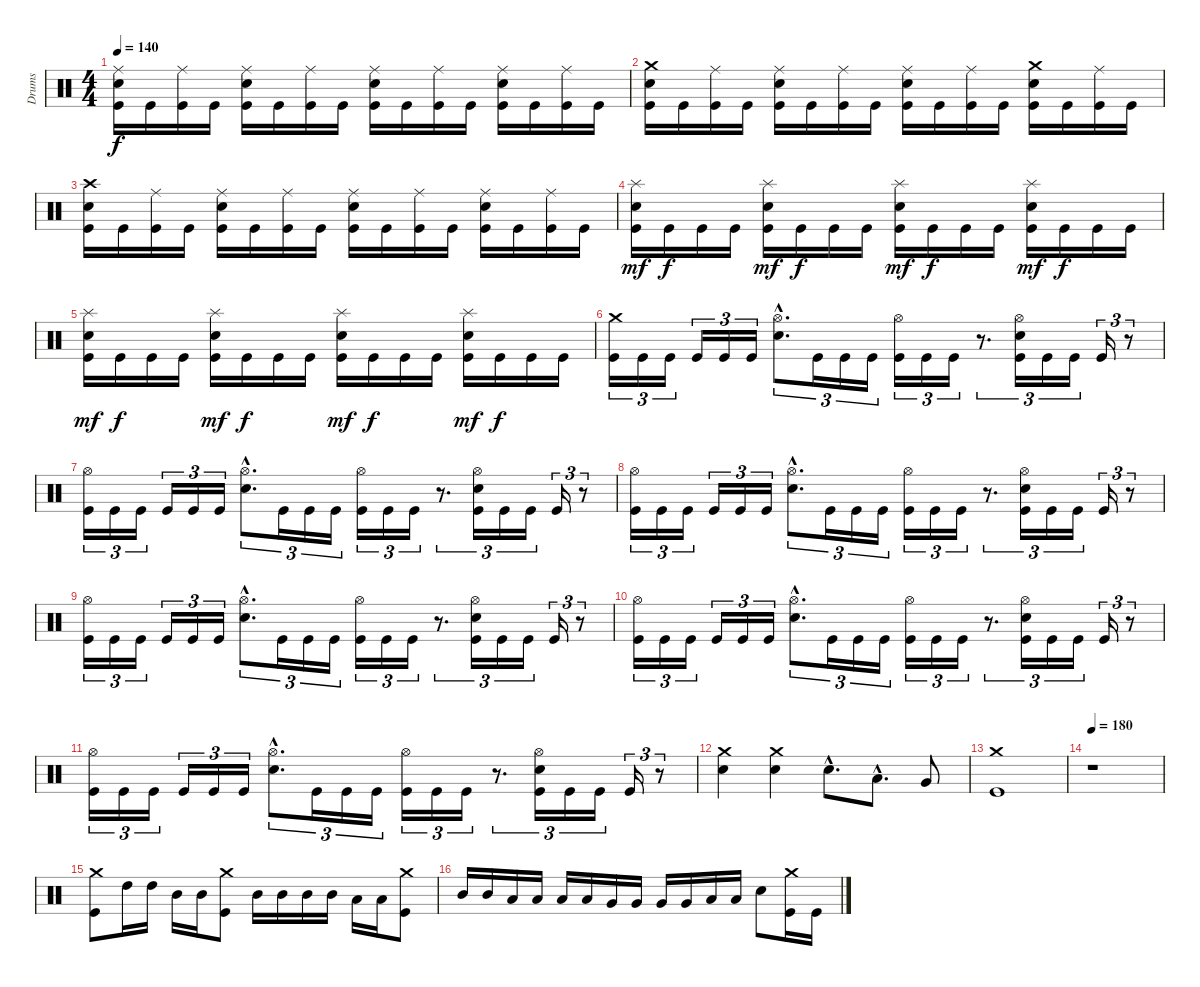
\track ("Drums" "Drums") {instrument percussion}
\staff {score}
\articulation defaults
\ts (4 4)
\tempo 140
\clef neutral
\ks c
("Kick (hit)" "Electric Snare (hit)" "Ride (middle)").16{dy f} "Kick (hit)".16 ("Kick (hit)" "Ride (middle)").16 "Kick (hit)".16 ("Kick (hit)" "Electric Snare (hit)" "Ride (middle)").16 "Kick (hit)".16 ("Kick (hit)" "Ride (middle)").16 "Kick (hit)".16 ("Kick (hit)" "Electric Snare (hit)" "Ride (middle)").16 "Kick (hit)".16 ("Kick (hit)" "Ride (middle)").16 "Kick (hit)".16 ("Kick (hit)" "Electric Snare (hit)" "Ride (middle)").16 "Kick (hit)".16 ("Kick (hit)" "Ride (middle)").16 "Kick (hit)".16 |
("Kick (hit)" "Electric Snare (hit)" "Crash medium (hit)").16 "Kick (hit)".16 ("Kick (hit)" "Ride (middle)").16 "Kick (hit)".16 ("Kick (hit)" "Electric Snare (hit)" "Ride (middle)").16 "Kick (hit)".16 ("Kick (hit)" "Ride (middle)").16 "Kick (hit)".16 ("Kick (hit)" "Electric Snare (hit)" "Ride (middle)").16 "Kick (hit)".16 ("Kick (hit)" "Ride (middle)").16 "Kick (hit)".16 ("Kick (hit)" "Electric Snare (hit)" "Crash medium (hit)").16 "Kick (hit)".16 ("Kick (hit)" "Ride (middle)").16 "Kick (hit)".16 |
("Kick (hit)" "Electric Snare (hit)" "Crash high (hit)").16 "Kick (hit)".16 ("Kick (hit)" "Ride (middle)").16 "Kick (hit)".16 ("Kick (hit)" "Electric Snare (hit)" "Ride (middle)").16 "Kick (hit)".16 ("Kick (hit)" "Ride (middle)").16 "Kick (hit)".16 ("Kick (hit)" "Electric Snare (hit)" "Ride (middle)").16 "Kick (hit)".16 ("Kick (hit)" "Ride (middle)").16 "Kick (hit)".16 ("Kick (hit)" "Electric Snare (hit)" "Ride (middle)").16 "Kick (hit)".16 ("Kick (hit)" "Ride (middle)").16 "Kick (hit)".16 |
("Kick (hit)" "Electric Snare (hit)" "Splash (hit)").16{dy mf} "Kick (hit)".16{dy f} "Kick (hit)".16 "Kick (hit)".16 ("Kick (hit)" "Electric Snare (hit)" "Splash (hit)").16{dy mf} "Kick (hit)".16{dy f} "Kick (hit)".16 "Kick (hit)".16 ("Kick (hit)" "Electric Snare (hit)" "Splash (hit)").16{dy mf} "Kick (hit)".16{dy f} "Kick (hit)".16 "Kick (hit)".16 ("Kick (hit)" "Electric Snare (hit)" "Splash (hit)").16{dy mf} "Kick (hit)".16{dy f} "Kick (hit)".16 "Kick (hit)".16 |
("Kick (hit)" "Electric Snare (hit)" "Splash (hit)").16{dy mf} "Kick (hit)".16{dy f} "Kick (hit)".16 "Kick (hit)".16 ("Kick (hit)" "Electric Snare (hit)" "Splash (hit)").16{dy mf} "Kick (hit)".16{dy f} "Kick (hit)".16 "Kick (hit)".16 ("Kick (hit)" "Electric Snare (hit)" "Splash (hit)").16{dy mf} "Kick (hit)".16{dy f} "Kick (hit)".16 "Kick (hit)".16 ("Kick (hit)" "Electric Snare (hit)" "Splash (hit)").16{dy mf} "Kick (hit)".16{dy f} "Kick (hit)".16 "Kick (hit)".16 |
("Kick (hit)" "Crash medium (hit)").16{tu (3 2)} "Kick (hit)".16{tu (3 2)} "Kick (hit)".16{tu (3 2)} "Kick (hit)".16{tu (3 2)} "Kick (hit)".16{tu (3 2)} "Kick (hit)".16{tu (3 2)} ("Electric Snare (hit)"{hac} "Hi-Hat (open)"{hac}).8{d tu (3 2)} "Kick (hit)".16{tu (3 2)} "Kick (hit)".16{tu (3 2)} "Kick (hit)".16{tu (3 2)} ("Kick (hit)" "Hi-Hat (open)").16{tu (3 2)} "Kick (hit)".16{tu (3 2)} "Kick (hit)".16{tu (3 2)} r.8{d tu (3 2)} ("Kick (hit)" "Electric Snare (hit)" "Hi-Hat (open)").16{tu (3 2)} "Kick (hit)".16{tu (3 2)} "Kick (hit)".16{tu (3 2)} "Kick (hit)".16{tu (3 2)} r.8{tu (3 2)} |
("Kick (hit)" "Hi-Hat (open)").16{tu (3 2)} "Kick (hit)".16{tu (3 2)} "Kick (hit)".16{tu (3 2)} "Kick (hit)".16{tu (3 2)} "Kick (hit)".16{tu (3 2)} "Kick (hit)".16{tu (3 2)} ("Electric Snare (hit)"{hac} "Hi-Hat (open)"{hac}).8{d tu (3 2)} "Kick (hit)".16{tu (3 2)} "Kick (hit)".16{tu (3 2)} "Kick (hit)".16{tu (3 2)} ("Kick (hit)" "Hi-Hat (open)").16{tu (3 2)} "Kick (hit)".16{tu (3 2)} "Kick (hit)".16{tu (3 2)} r.8{d tu (3 2)} ("Kick (hit)" "Electric Snare (hit)" "Hi-Hat (open)").16{tu (3 2)} "Kick (hit)".16{tu (3 2)} "Kick (hit)".16{tu (3 2)} "Kick (hit)".16{tu (3 2)} r.8{tu (3 2)} |
("Kick (hit)" "Hi-Hat (open)").16{tu (3 2)} "Kick (hit)".16{tu (3 2)} "Kick (hit)".16{tu (3 2)} "Kick (hit)".16{tu (3 2)} "Kick (hit)".16{tu (3 2)} "Kick (hit)".16{tu (3 2)} ("Electric Snare (hit)"{hac} "Hi-Hat (open)"{hac}).8{d tu (3 2)} "Kick (hit)".16{tu (3 2)} "Kick (hit)".16{tu (3 2)} "Kick (hit)".16{tu (3 2)} ("Kick (hit)" "Hi-Hat (open)").16{tu (3 2)} "Kick (hit)".16{tu (3 2)} "Kick (hit)".16{tu (3 2)} r.8{d tu (3 2)} ("Kick (hit)" "Electric Snare (hit)" "Hi-Hat (open)").16{tu (3 2)} "Kick (hit)".16{tu (3 2)} "Kick (hit)".16{tu (3 2)} "Kick (hit)".16{tu (3 2)} r.8{tu (3 2)} |
("Kick (hit)" "Hi-Hat (open)").16{tu (3 2)} "Kick (hit)".16{tu (3 2)} "Kick (hit)".16{tu (3 2)} "Kick (hit)".16{tu (3 2)} "Kick (hit)".16{tu (3 2)} "Kick (hit)".16{tu (3 2)} ("Electric Snare (hit)"{hac} "Hi-Hat (open)"{hac}).8{d tu (3 2)} "Kick (hit)".16{tu (3 2)} "Kick (hit)".16{tu (3 2)} "Kick (hit)".16{tu (3 2)} ("Kick (hit)" "Hi-Hat (open)").16{tu (3 2)} "Kick (hit)".16{tu (3 2)} "Kick (hit)".16{tu (3 2)} r.8{d tu (3 2)} ("Kick (hit)" "Electric Snare (hit)" "Hi-Hat (open)").16{tu (3 2)} "Kick (hit)".16{tu (3 2)} "Kick (hit)".16{tu (3 2)} "Kick (hit)".16{tu (3 2)} r.8{tu (3 2)} |
("Kick (hit)" "Hi-Hat (open)").16{tu (3 2)} "Kick (hit)".16{tu (3 2)} "Kick (hit)".16{tu (3 2)} "Kick (hit)".16{tu (3 2)} "Kick (hit)".16{tu (3 2)} "Kick (hit)".16{tu (3 2)} ("Electric Snare (hit)"{hac} "Hi-Hat (open)"{hac}).8{d tu (3 2)} "Kick (hit)".16{tu (3 2)} "Kick (hit)".16{tu (3 2)} "Kick (hit)".16{tu (3 2)} ("Kick (hit)" "Hi-Hat (open)").16{tu (3 2)} "Kick (hit)".16{tu (3 2)} "Kick (hit)".16{tu (3 2)} r.8{d tu (3 2)} ("Kick (hit)" "Electric Snare (hit)" "Hi-Hat (open)").16{tu (3 2)} "Kick (hit)".16{tu (3 2)} "Kick (hit)".16{tu (3 2)} "Kick (hit)".16{tu (3 2)} r.8{tu (3 2)} |
("Kick (hit)" "Hi-Hat (open)").16{tu (3 2)} "Kick (hit)".16{tu (3 2)} "Kick (hit)".16{tu (3 2)} "Kick (hit)".16{tu (3 2)} "Kick (hit)".16{tu (3 2)} "Kick (hit)".16{tu (3 2)} ("Electric Snare (hit)"{hac} "Hi-Hat (open)"{hac}).8{d tu (3 2)} "Kick (hit)".16{tu (3 2)} "Kick (hit)".16{tu (3 2)} "Kick (hit)".16{tu (3 2)} ("Kick (hit)" "Hi-Hat (open)").16{tu (3 2)} "Kick (hit)".16{tu (3 2)} "Kick (hit)".16{tu (3 2)} r.8{d tu (3 2)} ("Kick (hit)" "Electric Snare (hit)" "Hi-Hat (open)").16{tu (3 2)} "Kick (hit)".16{tu (3 2)} "Kick (hit)".16{tu (3 2)} "Kick (hit)".16{tu (3 2)} r.8{tu (3 2)} |
("Electric Snare (hit)" "Crash medium (hit)").4 ("Electric Snare (hit)" "Crash medium (hit)").4 "Electric Snare (hit)"{hac}.8{d} "Low Tom (hit)"{hac}.8{d} "Very Low Tom (hit)".8 |
("Kick (hit)" "Crash medium (hit)").1 |
\tempo 180
r.1 |
("Kick (hit)" "Crash medium (hit)").8 "High Tom (hit)".16 "High Tom (hit)".16 "Mid Tom (hit)".16 "Mid Tom (hit)".16 ("Kick (hit)" "Crash medium (hit)").8 "Mid Tom (hit)".16 "Mid Tom (hit)".16 "Mid Tom (hit)".16 "Mid Tom (hit)".16 "Low Tom (hit)".16 "Low Tom (hit)".16 ("Kick (hit)" "Crash medium (hit)").8 |
"Mid Tom (hit)".16 "Mid Tom (hit)".16 "Low Tom (hit)".16 "Low Tom (hit)".16 "Low Tom (hit)".16 "Low Tom (hit)".16 "Very Low Tom (hit)".16 "Very Low Tom (hit)".16 "Very Low Tom (hit)".16 "Very Low Tom (hit)".16 "Low Floor Tom (hit)".16 "Low Floor Tom (hit)".16 "Electric Snare (hit)".8 ("Kick (hit)" "Crash medium (hit)").16 "Kick (hit)".16
